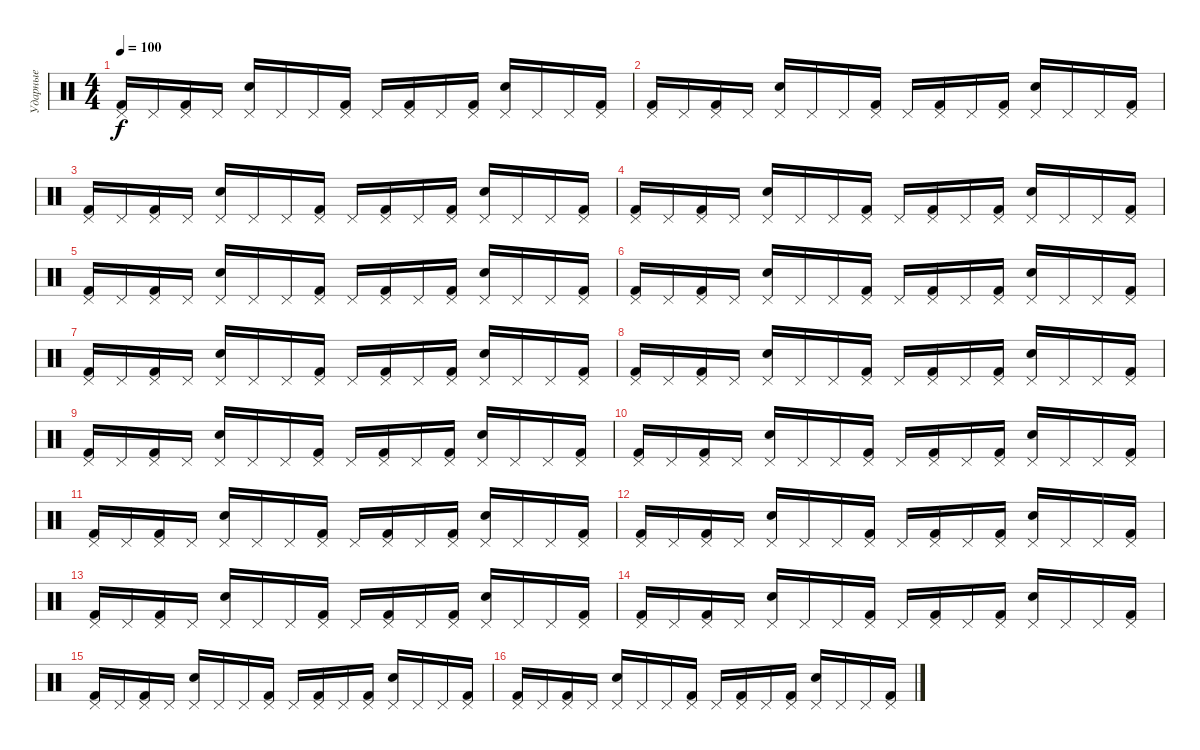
\track ("Ударные" "Ударные") {instrument percussion}
\staff {score}
\articulation defaults
\ts (4 4)
\tempo 100
\clef neutral
\ks c
("Pedal Hi-Hat (hit)" "Kick (hit) 2").16{dy f} "Pedal Hi-Hat (hit)".16 ("Pedal Hi-Hat (hit)" "Kick (hit) 2").16 "Pedal Hi-Hat (hit)".16 ("Pedal Hi-Hat (hit)" "Snare (hit) 2").16 "Pedal Hi-Hat (hit)".16 "Pedal Hi-Hat (hit)".16 ("Pedal Hi-Hat (hit)" "Kick (hit) 2").16 "Pedal Hi-Hat (hit)".16 ("Pedal Hi-Hat (hit)" "Kick (hit) 2").16 "Pedal Hi-Hat (hit)".16 ("Pedal Hi-Hat (hit)" "Kick (hit) 2").16 ("Pedal Hi-Hat (hit)" "Snare (hit) 2").16 "Pedal Hi-Hat (hit)".16 "Pedal Hi-Hat (hit)".16 ("Pedal Hi-Hat (hit)" "Kick (hit) 2").16 |
("Pedal Hi-Hat (hit)" "Kick (hit) 2").16 "Pedal Hi-Hat (hit)".16 ("Pedal Hi-Hat (hit)" "Kick (hit) 2").16 "Pedal Hi-Hat (hit)".16 ("Pedal Hi-Hat (hit)" "Snare (hit) 2").16 "Pedal Hi-Hat (hit)".16 "Pedal Hi-Hat (hit)".16 ("Pedal Hi-Hat (hit)" "Kick (hit) 2").16 "Pedal Hi-Hat (hit)".16 ("Pedal Hi-Hat (hit)" "Kick (hit) 2").16 "Pedal Hi-Hat (hit)".16 ("Pedal Hi-Hat (hit)" "Kick (hit) 2").16 ("Pedal Hi-Hat (hit)" "Snare (hit) 2").16 "Pedal Hi-Hat (hit)".16 "Pedal Hi-Hat (hit)".16 ("Pedal Hi-Hat (hit)" "Kick (hit) 2").16 |
("Pedal Hi-Hat (hit)" "Kick (hit) 2").16 "Pedal Hi-Hat (hit)".16 ("Pedal Hi-Hat (hit)" "Kick (hit) 2").16 "Pedal Hi-Hat (hit)".16 ("Pedal Hi-Hat (hit)" "Snare (hit) 2").16 "Pedal Hi-Hat (hit)".16 "Pedal Hi-Hat (hit)".16 ("Pedal Hi-Hat (hit)" "Kick (hit) 2").16 "Pedal Hi-Hat (hit)".16 ("Pedal Hi-Hat (hit)" "Kick (hit) 2").16 "Pedal Hi-Hat (hit)".16 ("Pedal Hi-Hat (hit)" "Kick (hit) 2").16 ("Pedal Hi-Hat (hit)" "Snare (hit) 2").16 "Pedal Hi-Hat (hit)".16 "Pedal Hi-Hat (hit)".16 ("Pedal Hi-Hat (hit)" "Kick (hit) 2").16 |
("Pedal Hi-Hat (hit)" "Kick (hit) 2").16 "Pedal Hi-Hat (hit)".16 ("Pedal Hi-Hat (hit)" "Kick (hit) 2").16 "Pedal Hi-Hat (hit)".16 ("Pedal Hi-Hat (hit)" "Snare (hit) 2").16 "Pedal Hi-Hat (hit)".16 "Pedal Hi-Hat (hit)".16 ("Pedal Hi-Hat (hit)" "Kick (hit) 2").16 "Pedal Hi-Hat (hit)".16 ("Pedal Hi-Hat (hit)" "Kick (hit) 2").16 "Pedal Hi-Hat (hit)".16 ("Pedal Hi-Hat (hit)" "Kick (hit) 2").16 ("Pedal Hi-Hat (hit)" "Snare (hit) 2").16 "Pedal Hi-Hat (hit)".16 "Pedal Hi-Hat (hit)".16 ("Pedal Hi-Hat (hit)" "Kick (hit) 2").16 |
("Pedal Hi-Hat (hit)" "Kick (hit) 2").16 "Pedal Hi-Hat (hit)".16 ("Pedal Hi-Hat (hit)" "Kick (hit) 2").16 "Pedal Hi-Hat (hit)".16 ("Pedal Hi-Hat (hit)" "Snare (hit) 2").16 "Pedal Hi-Hat (hit)".16 "Pedal Hi-Hat (hit)".16 ("Pedal Hi-Hat (hit)" "Kick (hit) 2").16 "Pedal Hi-Hat (hit)".16 ("Pedal Hi-Hat (hit)" "Kick (hit) 2").16 "Pedal Hi-Hat (hit)".16 ("Pedal Hi-Hat (hit)" "Kick (hit) 2").16 ("Pedal Hi-Hat (hit)" "Snare (hit) 2").16 "Pedal Hi-Hat (hit)".16 "Pedal Hi-Hat (hit)".16 ("Pedal Hi-Hat (hit)" "Kick (hit) 2").16 |
("Pedal Hi-Hat (hit)" "Kick (hit) 2").16 "Pedal Hi-Hat (hit)".16 ("Pedal Hi-Hat (hit)" "Kick (hit) 2").16 "Pedal Hi-Hat (hit)".16 ("Pedal Hi-Hat (hit)" "Snare (hit) 2").16 "Pedal Hi-Hat (hit)".16 "Pedal Hi-Hat (hit)".16 ("Pedal Hi-Hat (hit)" "Kick (hit) 2").16 "Pedal Hi-Hat (hit)".16 ("Pedal Hi-Hat (hit)" "Kick (hit) 2").16 "Pedal Hi-Hat (hit)".16 ("Pedal Hi-Hat (hit)" "Kick (hit) 2").16 ("Pedal Hi-Hat (hit)" "Snare (hit) 2").16 "Pedal Hi-Hat (hit)".16 "Pedal Hi-Hat (hit)".16 ("Pedal Hi-Hat (hit)" "Kick (hit) 2").16 |
("Pedal Hi-Hat (hit)" "Kick (hit) 2").16 "Pedal Hi-Hat (hit)".16 ("Pedal Hi-Hat (hit)" "Kick (hit) 2").16 "Pedal Hi-Hat (hit)".16 ("Pedal Hi-Hat (hit)" "Snare (hit) 2").16 "Pedal Hi-Hat (hit)".16 "Pedal Hi-Hat (hit)".16 ("Pedal Hi-Hat (hit)" "Kick (hit) 2").16 "Pedal Hi-Hat (hit)".16 ("Pedal Hi-Hat (hit)" "Kick (hit) 2").16 "Pedal Hi-Hat (hit)".16 ("Pedal Hi-Hat (hit)" "Kick (hit) 2").16 ("Pedal Hi-Hat (hit)" "Snare (hit) 2").16 "Pedal Hi-Hat (hit)".16 "Pedal Hi-Hat (hit)".16 ("Pedal Hi-Hat (hit)" "Kick (hit) 2").16 |
("Pedal Hi-Hat (hit)" "Kick (hit) 2").16 "Pedal Hi-Hat (hit)".16 ("Pedal Hi-Hat (hit)" "Kick (hit) 2").16 "Pedal Hi-Hat (hit)".16 ("Pedal Hi-Hat (hit)" "Snare (hit) 2").16 "Pedal Hi-Hat (hit)".16 "Pedal Hi-Hat (hit)".16 ("Pedal Hi-Hat (hit)" "Kick (hit) 2").16 "Pedal Hi-Hat (hit)".16 ("Pedal Hi-Hat (hit)" "Kick (hit) 2").16 "Pedal Hi-Hat (hit)".16 ("Pedal Hi-Hat (hit)" "Kick (hit) 2").16 ("Pedal Hi-Hat (hit)" "Snare (hit) 2").16 "Pedal Hi-Hat (hit)".16 "Pedal Hi-Hat (hit)".16 ("Pedal Hi-Hat (hit)" "Kick (hit) 2").16 |
("Pedal Hi-Hat (hit)" "Kick (hit) 2").16 "Pedal Hi-Hat (hit)".16 ("Pedal Hi-Hat (hit)" "Kick (hit) 2").16 "Pedal Hi-Hat (hit)".16 ("Pedal Hi-Hat (hit)" "Snare (hit) 2").16 "Pedal Hi-Hat (hit)".16 "Pedal Hi-Hat (hit)".16 ("Pedal Hi-Hat (hit)" "Kick (hit) 2").16 "Pedal Hi-Hat (hit)".16 ("Pedal Hi-Hat (hit)" "Kick (hit) 2").16 "Pedal Hi-Hat (hit)".16 ("Pedal Hi-Hat (hit)" "Kick (hit) 2").16 ("Pedal Hi-Hat (hit)" "Snare (hit) 2").16 "Pedal Hi-Hat (hit)".16 "Pedal Hi-Hat (hit)".16 ("Pedal Hi-Hat (hit)" "Kick (hit) 2").16 |
("Pedal Hi-Hat (hit)" "Kick (hit) 2").16 "Pedal Hi-Hat (hit)".16 ("Pedal Hi-Hat (hit)" "Kick (hit) 2").16 "Pedal Hi-Hat (hit)".16 ("Pedal Hi-Hat (hit)" "Snare (hit) 2").16 "Pedal Hi-Hat (hit)".16 "Pedal Hi-Hat (hit)".16 ("Pedal Hi-Hat (hit)" "Kick (hit) 2").16 "Pedal Hi-Hat (hit)".16 ("Pedal Hi-Hat (hit)" "Kick (hit) 2").16 "Pedal Hi-Hat (hit)".16 ("Pedal Hi-Hat (hit)" "Kick (hit) 2").16 ("Pedal Hi-Hat (hit)" "Snare (hit) 2").16 "Pedal Hi-Hat (hit)".16 "Pedal Hi-Hat (hit)".16 ("Pedal Hi-Hat (hit)" "Kick (hit) 2").16 |
("Pedal Hi-Hat (hit)" "Kick (hit) 2").16 "Pedal Hi-Hat (hit)".16 ("Pedal Hi-Hat (hit)" "Kick (hit) 2").16 "Pedal Hi-Hat (hit)".16 ("Pedal Hi-Hat (hit)" "Snare (hit) 2").16 "Pedal Hi-Hat (hit)".16 "Pedal Hi-Hat (hit)".16 ("Pedal Hi-Hat (hit)" "Kick (hit) 2").16 "Pedal Hi-Hat (hit)".16 ("Pedal Hi-Hat (hit)" "Kick (hit) 2").16 "Pedal Hi-Hat (hit)".16 ("Pedal Hi-Hat (hit)" "Kick (hit) 2").16 ("Pedal Hi-Hat (hit)" "Snare (hit) 2").16 "Pedal Hi-Hat (hit)".16 "Pedal Hi-Hat (hit)".16 ("Pedal Hi-Hat (hit)" "Kick (hit) 2").16 |
("Pedal Hi-Hat (hit)" "Kick (hit) 2").16 "Pedal Hi-Hat (hit)".16 ("Pedal Hi-Hat (hit)" "Kick (hit) 2").16 "Pedal Hi-Hat (hit)".16 ("Pedal Hi-Hat (hit)" "Snare (hit) 2").16 "Pedal Hi-Hat (hit)".16 "Pedal Hi-Hat (hit)".16 ("Pedal Hi-Hat (hit)" "Kick (hit) 2").16 "Pedal Hi-Hat (hit)".16 ("Pedal Hi-Hat (hit)" "Kick (hit) 2").16 "Pedal Hi-Hat (hit)".16 ("Pedal Hi-Hat (hit)" "Kick (hit) 2").16 ("Pedal Hi-Hat (hit)" "Snare (hit) 2").16 "Pedal Hi-Hat (hit)".16 "Pedal Hi-Hat (hit)".16 ("Pedal Hi-Hat (hit)" "Kick (hit) 2").16 |
("Pedal Hi-Hat (hit)" "Kick (hit) 2").16 "Pedal Hi-Hat (hit)".16 ("Pedal Hi-Hat (hit)" "Kick (hit) 2").16 "Pedal Hi-Hat (hit)".16 ("Pedal Hi-Hat (hit)" "Snare (hit) 2").16 "Pedal Hi-Hat (hit)".16 "Pedal Hi-Hat (hit)".16 ("Pedal Hi-Hat (hit)" "Kick (hit) 2").16 "Pedal Hi-Hat (hit)".16 ("Pedal Hi-Hat (hit)" "Kick (hit) 2").16 "Pedal Hi-Hat (hit)".16 ("Pedal Hi-Hat (hit)" "Kick (hit) 2").16 ("Pedal Hi-Hat (hit)" "Snare (hit) 2").16 "Pedal Hi-Hat (hit)".16 "Pedal Hi-Hat (hit)".16 ("Pedal Hi-Hat (hit)" "Kick (hit) 2").16 |
("Pedal Hi-Hat (hit)" "Kick (hit) 2").16 "Pedal Hi-Hat (hit)".16 ("Pedal Hi-Hat (hit)" "Kick (hit) 2").16 "Pedal Hi-Hat (hit)".16 ("Pedal Hi-Hat (hit)" "Snare (hit) 2").16 "Pedal Hi-Hat (hit)".16 "Pedal Hi-Hat (hit)".16 ("Pedal Hi-Hat (hit)" "Kick (hit) 2").16 "Pedal Hi-Hat (hit)".16 ("Pedal Hi-Hat (hit)" "Kick (hit) 2").16 "Pedal Hi-Hat (hit)".16 ("Pedal Hi-Hat (hit)" "Kick (hit) 2").16 ("Pedal Hi-Hat (hit)" "Snare (hit) 2").16 "Pedal Hi-Hat (hit)".16 "Pedal Hi-Hat (hit)".16 ("Pedal Hi-Hat (hit)" "Kick (hit) 2").16 |
("Pedal Hi-Hat (hit)" "Kick (hit) 2").16 "Pedal Hi-Hat (hit)".16 ("Pedal Hi-Hat (hit)" "Kick (hit) 2").16 "Pedal Hi-Hat (hit)".16 ("Pedal Hi-Hat (hit)" "Snare (hit) 2").16 "Pedal Hi-Hat (hit)".16 "Pedal Hi-Hat (hit)".16 ("Pedal Hi-Hat (hit)" "Kick (hit) 2").16 "Pedal Hi-Hat (hit)".16 ("Pedal Hi-Hat (hit)" "Kick (hit) 2").16 "Pedal Hi-Hat (hit)".16 ("Pedal Hi-Hat (hit)" "Kick (hit) 2").16 ("Pedal Hi-Hat (hit)" "Snare (hit) 2").16 "Pedal Hi-Hat (hit)".16 "Pedal Hi-Hat (hit)".16 ("Pedal Hi-Hat (hit)" "Kick (hit) 2").16 |
("Pedal Hi-Hat (hit)" "Kick (hit) 2").16 "Pedal Hi-Hat (hit)".16 ("Pedal Hi-Hat (hit)" "Kick (hit) 2").16 "Pedal Hi-Hat (hit)".16 ("Pedal Hi-Hat (hit)" "Snare (hit) 2").16 "Pedal Hi-Hat (hit)".16 "Pedal Hi-Hat (hit)".16 ("Pedal Hi-Hat (hit)" "Kick (hit) 2").16 "Pedal Hi-Hat (hit)".16 ("Pedal Hi-Hat (hit)" "Kick (hit) 2").16 "Pedal Hi-Hat (hit)".16 ("Pedal Hi-Hat (hit)" "Kick (hit) 2").16 ("Pedal Hi-Hat (hit)" "Snare (hit) 2").16 "Pedal Hi-Hat (hit)".16 "Pedal Hi-Hat (hit)".16 ("Pedal Hi-Hat (hit)" "Kick (hit) 2").16
